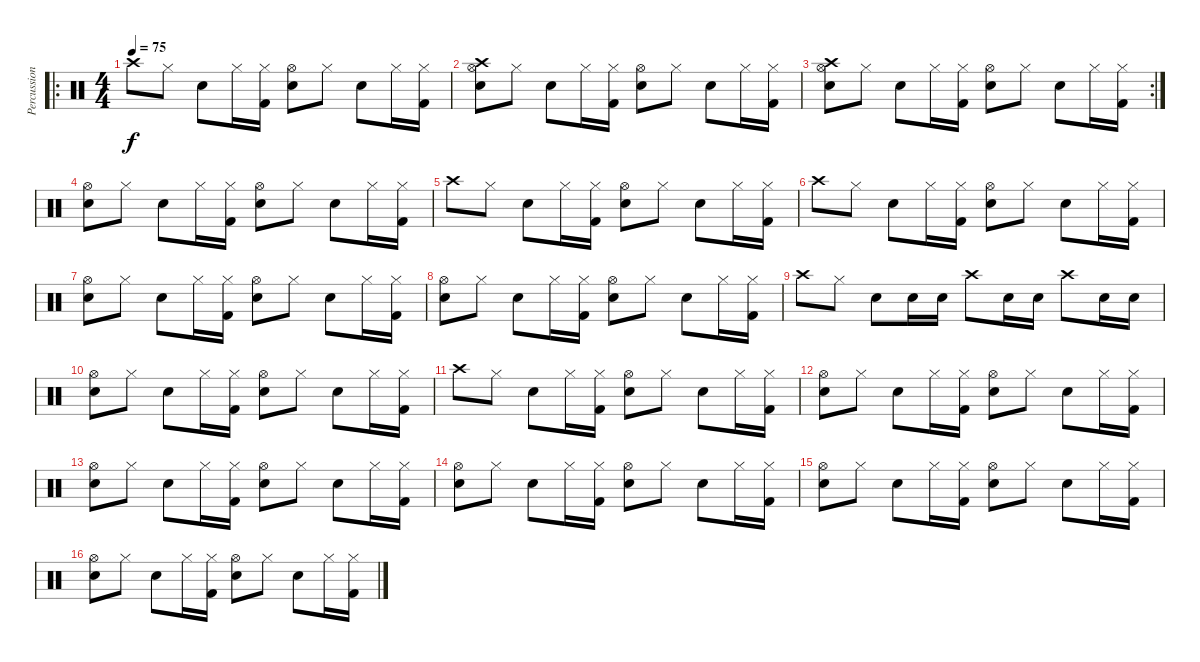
\track ("Percussion" "Percussion") {instrument percussion}
\staff {score}
\articulation defaults
\ro
\ts (4 4)
\tempo 75
\clef neutral
\ks c "Crash high (hit)".8{dy f} "Hi-Hat (closed)".8 "Electric Snare (hit)".8 "Hi-Hat (closed)".16
("Hi-Hat (closed)" "Kick (hit) 2").16 ("Hi-Hat (open)" "Electric Snare (hit)").8 "Hi-Hat (closed)".8 "Electric Snare (hit)".8 "Hi-Hat (closed)".16 ("Hi-Hat (closed)" "Kick (hit) 2").16 |
("Crash high (hit)" "Hi-Hat (open)" "Electric Snare (hit)").8 "Hi-Hat (closed)".8 "Electric Snare (hit)".8 "Hi-Hat (closed)".16 ("Hi-Hat (closed)" "Kick (hit) 2").16 ("Hi-Hat (open)" "Electric Snare (hit)").8 "Hi-Hat (closed)".8 "Electric Snare (hit)".8 "Hi-Hat (closed)".16 ("Hi-Hat (closed)" "Kick (hit) 2").16 |
\rc 2
("Crash high (hit)" "Hi-Hat (open)" "Electric Snare (hit)").8 "Hi-Hat (closed)".8 "Electric Snare (hit)".8 "Hi-Hat (closed)".16 ("Hi-Hat (closed)" "Kick (hit) 2").16 ("Hi-Hat (open)" "Electric Snare (hit)").8 "Hi-Hat (closed)".8 "Electric Snare (hit)".8 "Hi-Hat (closed)".16 ("Hi-Hat (closed)" "Kick (hit) 2").16 |
("Hi-Hat (open)" "Electric Snare (hit)").8 "Hi-Hat (closed)".8 "Electric Snare (hit)".8 "Hi-Hat (closed)".16 ("Hi-Hat (closed)" "Kick (hit) 2").16 ("Hi-Hat (open)" "Electric Snare (hit)").8 "Hi-Hat (closed)".8 "Electric Snare (hit)".8 "Hi-Hat (closed)".16 ("Hi-Hat (closed)" "Kick (hit) 2").16 |
"Crash high (hit)".8 "Hi-Hat (closed)".8 "Electric Snare (hit)".8 "Hi-Hat (closed)".16 ("Hi-Hat (closed)" "Kick (hit) 2").16 ("Hi-Hat (open)" "Electric Snare (hit)").8 "Hi-Hat (closed)".8 "Electric Snare (hit)".8 "Hi-Hat (closed)".16 ("Hi-Hat (closed)" "Kick (hit) 2").16 |
"Crash high (hit)".8 "Hi-Hat (closed)".8 "Electric Snare (hit)".8 "Hi-Hat (closed)".16 ("Hi-Hat (closed)" "Kick (hit) 2").16 ("Hi-Hat (open)" "Electric Snare (hit)").8 "Hi-Hat (closed)".8 "Electric Snare (hit)".8 "Hi-Hat (closed)".16 ("Hi-Hat (closed)" "Kick (hit) 2").16 |
("Hi-Hat (open)" "Electric Snare (hit)").8 "Hi-Hat (closed)".8 "Electric Snare (hit)".8 "Hi-Hat (closed)".16 ("Hi-Hat (closed)" "Kick (hit) 2").16 ("Hi-Hat (open)" "Electric Snare (hit)").8 "Hi-Hat (closed)".8 "Electric Snare (hit)".8 "Hi-Hat (closed)".16 ("Hi-Hat (closed)" "Kick (hit) 2").16 |
("Hi-Hat (open)" "Electric Snare (hit)").8 "Hi-Hat (closed)".8 "Electric Snare (hit)".8 "Hi-Hat (closed)".16 ("Hi-Hat (closed)" "Kick (hit) 2").16 ("Hi-Hat (open)" "Electric Snare (hit)").8 "Hi-Hat (closed)".8 "Electric Snare (hit)".8 "Hi-Hat (closed)".16 ("Hi-Hat (closed)" "Kick (hit) 2").16 |
"Crash high (hit)".8 "Hi-Hat (closed)".8 "Electric Snare (hit)".8 "Electric Snare (hit)".16 "Electric Snare (hit)".16 "Crash high (hit)".8 "Electric Snare (hit)".16 "Electric Snare (hit)".16 "Crash high (hit)".8 "Electric Snare (hit)".16 "Electric Snare (hit)".16 |
("Hi-Hat (open)" "Electric Snare (hit)").8 "Hi-Hat (closed)".8 "Electric Snare (hit)".8 "Hi-Hat (closed)".16 ("Hi-Hat (closed)" "Kick (hit) 2").16 ("Hi-Hat (open)" "Electric Snare (hit)").8 "Hi-Hat (closed)".8 "Electric Snare (hit)".8 "Hi-Hat (closed)".16 ("Hi-Hat (closed)" "Kick (hit) 2").16 |
"Crash high (hit)".8 "Hi-Hat (closed)".8 "Electric Snare (hit)".8 "Hi-Hat (closed)".16 ("Hi-Hat (closed)" "Kick (hit) 2").16 ("Hi-Hat (open)" "Electric Snare (hit)").8 "Hi-Hat (closed)".8 "Electric Snare (hit)".8 "Hi-Hat (closed)".16 ("Hi-Hat (closed)" "Kick (hit) 2").16 |
("Hi-Hat (open)" "Electric Snare (hit)").8 "Hi-Hat (closed)".8 "Electric Snare (hit)".8 "Hi-Hat (closed)".16 ("Hi-Hat (closed)" "Kick (hit) 2").16 ("Hi-Hat (open)" "Electric Snare (hit)").8 "Hi-Hat (closed)".8 "Electric Snare (hit)".8 "Hi-Hat (closed)".16 ("Hi-Hat (closed)" "Kick (hit) 2").16 |
("Hi-Hat (open)" "Electric Snare (hit)").8 "Hi-Hat (closed)".8 "Electric Snare (hit)".8 "Hi-Hat (closed)".16 ("Hi-Hat (closed)" "Kick (hit) 2").16 ("Hi-Hat (open)" "Electric Snare (hit)").8 "Hi-Hat (closed)".8 "Electric Snare (hit)".8 "Hi-Hat (closed)".16 ("Hi-Hat (closed)" "Kick (hit) 2").16 |
("Hi-Hat (open)" "Electric Snare (hit)").8 "Hi-Hat (closed)".8 "Electric Snare (hit)".8 "Hi-Hat (closed)".16 ("Hi-Hat (closed)" "Kick (hit) 2").16 ("Hi-Hat (open)" "Electric Snare (hit)").8 "Hi-Hat (closed)".8 "Electric Snare (hit)".8 "Hi-Hat (closed)".16 ("Hi-Hat (closed)" "Kick (hit) 2").16 |
("Hi-Hat (open)" "Electric Snare (hit)").8 "Hi-Hat (closed)".8 "Electric Snare (hit)".8 "Hi-Hat (closed)".16 ("Hi-Hat (closed)" "Kick (hit) 2").16 ("Hi-Hat (open)" "Electric Snare (hit)").8 "Hi-Hat (closed)".8 "Electric Snare (hit)".8 "Hi-Hat (closed)".16 ("Hi-Hat (closed)" "Kick (hit) 2").16 |
("Hi-Hat (open)" "Electric Snare (hit)").8 "Hi-Hat (closed)".8 "Electric Snare (hit)".8 "Hi-Hat (closed)".16 ("Hi-Hat (closed)" "Kick (hit) 2").16 ("Hi-Hat (open)" "Electric Snare (hit)").8 "Hi-Hat (closed)".8 "Electric Snare (hit)".8 "Hi-Hat (closed)".16 ("Hi-Hat (closed)" "Kick (hit) 2").16
